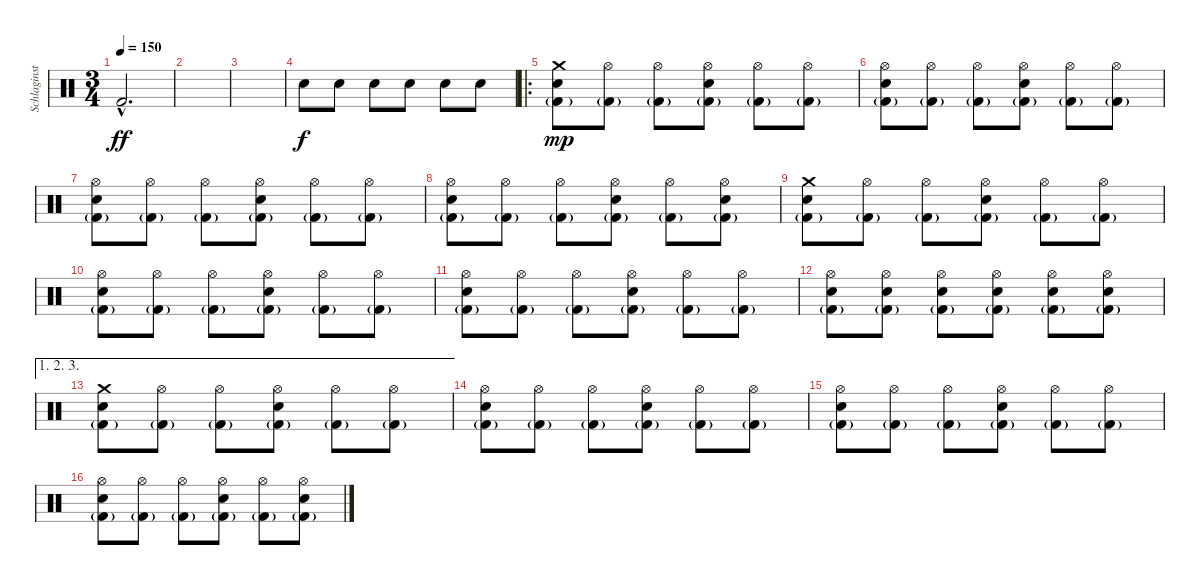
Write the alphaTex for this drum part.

\track ("Schlaginstrumente - Auswahl" "Schlaginst") {instrument percussion}
\staff {score}
\articulation defaults
\ts (3 4)
\tempo 150
\clef neutral
\ks c "Kick (hit) 2"{hac}.2{d dy ff}
|
|
|
"Electric Snare (hit)".8{dy f} "Electric Snare (hit)".8 "Electric Snare (hit)".8 "Electric Snare (hit)".8 "Electric Snare (hit)".8 "Electric Snare (hit)".8 |
\ro
("Crash medium (hit)" "Electric Snare (hit)" "Kick (hit) 2"{g}).8{dy mp} ("Hi-Hat (open)" "Kick (hit) 2"{g}).8 ("Hi-Hat (open)" "Kick (hit) 2"{g}).8 ("Hi-Hat (open)" "Electric Snare (hit)" "Kick (hit) 2"{g}).8 ("Hi-Hat (open)" "Kick (hit) 2"{g}).8 ("Hi-Hat (open)" "Kick (hit) 2"{g}).8 |
("Hi-Hat (open)" "Electric Snare (hit)" "Kick (hit) 2"{g}).8 ("Hi-Hat (open)" "Kick (hit) 2"{g}).8 ("Hi-Hat (open)" "Kick (hit) 2"{g}).8 ("Hi-Hat (open)" "Electric Snare (hit)" "Kick (hit) 2"{g}).8 ("Hi-Hat (open)" "Kick (hit) 2"{g}).8 ("Hi-Hat (open)" "Kick (hit) 2"{g}).8 |
("Hi-Hat (open)" "Electric Snare (hit)" "Kick (hit) 2"{g}).8 ("Hi-Hat (open)" "Kick (hit) 2"{g}).8 ("Hi-Hat (open)" "Kick (hit) 2"{g}).8 ("Hi-Hat (open)" "Electric Snare (hit)" "Kick (hit) 2"{g}).8 ("Hi-Hat (open)" "Kick (hit) 2"{g}).8 ("Hi-Hat (open)" "Kick (hit) 2"{g}).8 |
("Hi-Hat (open)" "Electric Snare (hit)" "Kick (hit) 2"{g}).8 ("Hi-Hat (open)" "Kick (hit) 2"{g}).8 ("Hi-Hat (open)" "Kick (hit) 2"{g}).8 ("Hi-Hat (open)" "Electric Snare (hit)" "Kick (hit) 2"{g}).8 ("Hi-Hat (open)" "Kick (hit) 2"{g}).8 ("Hi-Hat (open)" "Electric Snare (hit)" "Kick (hit) 2"{g}).8 |
("Crash medium (hit)" "Electric Snare (hit)" "Kick (hit) 2"{g}).8 ("Hi-Hat (open)" "Kick (hit) 2"{g}).8 ("Hi-Hat (open)" "Kick (hit) 2"{g}).8 ("Hi-Hat (open)" "Electric Snare (hit)" "Kick (hit) 2"{g}).8 ("Hi-Hat (open)" "Kick (hit) 2"{g}).8 ("Hi-Hat (open)" "Kick (hit) 2"{g}).8 |
("Hi-Hat (open)" "Electric Snare (hit)" "Kick (hit) 2"{g}).8 ("Hi-Hat (open)" "Kick (hit) 2"{g}).8 ("Hi-Hat (open)" "Kick (hit) 2"{g}).8 ("Hi-Hat (open)" "Electric Snare (hit)" "Kick (hit) 2"{g}).8 ("Hi-Hat (open)" "Kick (hit) 2"{g}).8 ("Hi-Hat (open)" "Kick (hit) 2"{g}).8 |
("Hi-Hat (open)" "Electric Snare (hit)" "Kick (hit) 2"{g}).8 ("Hi-Hat (open)" "Kick (hit) 2"{g}).8 ("Hi-Hat (open)" "Kick (hit) 2"{g}).8 ("Hi-Hat (open)" "Electric Snare (hit)" "Kick (hit) 2"{g}).8 ("Hi-Hat (open)" "Kick (hit) 2"{g}).8 ("Hi-Hat (open)" "Kick (hit) 2"{g}).8 |
("Hi-Hat (open)" "Electric Snare (hit)" "Kick (hit) 2"{g}).8 ("Hi-Hat (open)" "Electric Snare (hit)" "Kick (hit) 2"{g}).8 ("Hi-Hat (open)" "Electric Snare (hit)" "Kick (hit) 2"{g}).8 ("Hi-Hat (open)" "Electric Snare (hit)" "Kick (hit) 2"{g}).8 ("Hi-Hat (open)" "Electric Snare (hit)" "Kick (hit) 2"{g}).8 ("Hi-Hat (open)" "Electric Snare (hit)" "Kick (hit) 2"{g}).8 |
\ae (1 2 3)
("Crash medium (hit)" "Electric Snare (hit)" "Kick (hit) 2"{g}).8 ("Hi-Hat (open)" "Kick (hit) 2"{g}).8 ("Hi-Hat (open)" "Kick (hit) 2"{g}).8 ("Hi-Hat (open)" "Electric Snare (hit)" "Kick (hit) 2"{g}).8 ("Hi-Hat (open)" "Kick (hit) 2"{g}).8 ("Hi-Hat (open)" "Kick (hit) 2"{g}).8 |
("Hi-Hat (open)" "Electric Snare (hit)" "Kick (hit) 2"{g}).8 ("Hi-Hat (open)" "Kick (hit) 2"{g}).8 ("Hi-Hat (open)" "Kick (hit) 2"{g}).8 ("Hi-Hat (open)" "Electric Snare (hit)" "Kick (hit) 2"{g}).8 ("Hi-Hat (open)" "Kick (hit) 2"{g}).8 ("Hi-Hat (open)" "Kick (hit) 2"{g}).8 |
("Hi-Hat (open)" "Electric Snare (hit)" "Kick (hit) 2"{g}).8 ("Hi-Hat (open)" "Kick (hit) 2"{g}).8 ("Hi-Hat (open)" "Kick (hit) 2"{g}).8 ("Hi-Hat (open)" "Electric Snare (hit)" "Kick (hit) 2"{g}).8 ("Hi-Hat (open)" "Kick (hit) 2"{g}).8 ("Hi-Hat (open)" "Kick (hit) 2"{g}).8 |
("Hi-Hat (open)" "Electric Snare (hit)" "Kick (hit) 2"{g}).8 ("Hi-Hat (open)" "Kick (hit) 2"{g}).8 ("Hi-Hat (open)" "Kick (hit) 2"{g}).8 ("Hi-Hat (open)" "Electric Snare (hit)" "Kick (hit) 2"{g}).8 ("Hi-Hat (open)" "Kick (hit) 2"{g}).8 ("Hi-Hat (open)" "Electric Snare (hit)" "Kick (hit) 2"{g}).8
